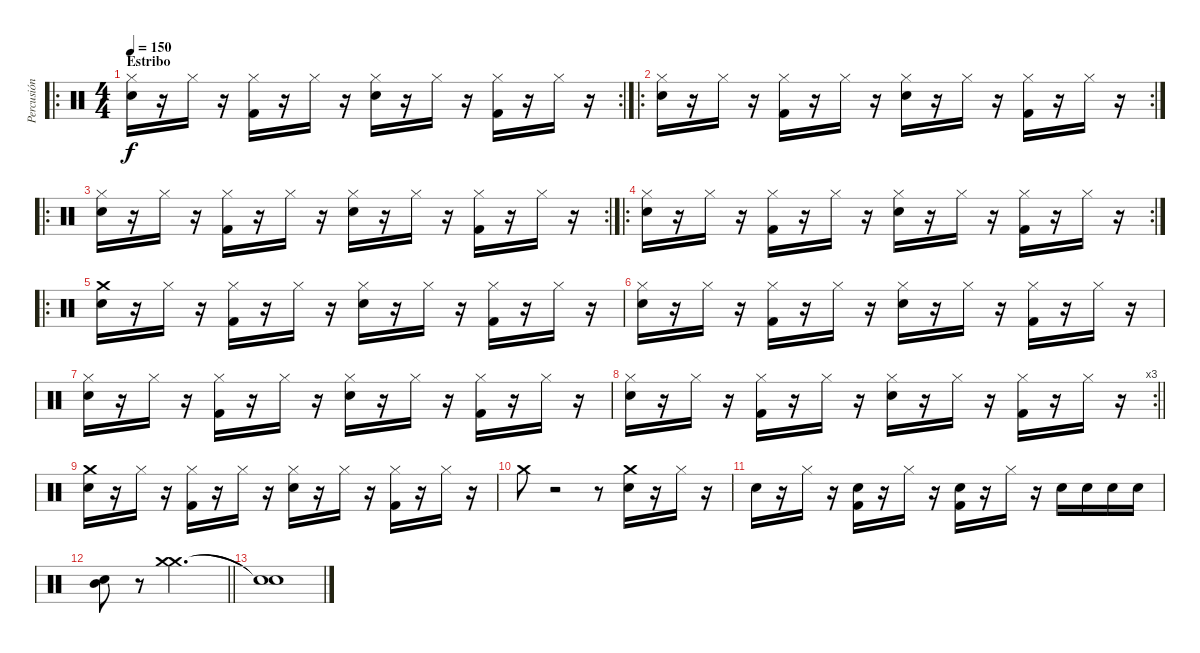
\track ("Percusión" "Percusión") {instrument percussion}
\staff {score}
\articulation defaults
\ro
\rc 2
\ts (4 4)
\section ("" "Estribo")
\tempo 150
\clef neutral
\ks c
("Hi-Hat (closed)" "Snare (hit) 2").16{dy f} r.16 "Hi-Hat (closed)".16 r.16 ("Hi-Hat (closed)" "Kick (hit) 2").16 r.16 "Hi-Hat (closed)".16 r.16 ("Hi-Hat (closed)" "Snare (hit) 2").16 r.16 "Hi-Hat (closed)".16 r.16 ("Hi-Hat (closed)" "Kick (hit) 2").16 r.16 "Hi-Hat (closed)".16 r.16 |
\ro
\rc 2
("Hi-Hat (closed)" "Snare (hit) 2").16 r.16 "Hi-Hat (closed)".16 r.16 ("Hi-Hat (closed)" "Kick (hit) 2").16 r.16 "Hi-Hat (closed)".16 r.16 ("Hi-Hat (closed)" "Snare (hit) 2").16 r.16 "Hi-Hat (closed)".16 r.16 ("Hi-Hat (closed)" "Kick (hit) 2").16 r.16 "Hi-Hat (closed)".16 r.16 |
\ro
\rc 2
("Hi-Hat (closed)" "Snare (hit) 2").16 r.16 "Hi-Hat (closed)".16 r.16 ("Hi-Hat (closed)" "Kick (hit) 2").16 r.16 "Hi-Hat (closed)".16 r.16 ("Hi-Hat (closed)" "Snare (hit) 2").16 r.16 "Hi-Hat (closed)".16 r.16 ("Hi-Hat (closed)" "Kick (hit) 2").16 r.16 "Hi-Hat (closed)".16 r.16 |
\ro
\rc 2
("Hi-Hat (closed)" "Snare (hit) 2").16 r.16 "Hi-Hat (closed)".16 r.16 ("Hi-Hat (closed)" "Kick (hit) 2").16 r.16 "Hi-Hat (closed)".16 r.16 ("Hi-Hat (closed)" "Snare (hit) 2").16 r.16 "Hi-Hat (closed)".16 r.16 ("Hi-Hat (closed)" "Kick (hit) 2").16 r.16 "Hi-Hat (closed)".16 r.16 |
\ro
("Crash medium (hit)" "Snare (hit) 2").16 r.16 "Hi-Hat (closed)".16 r.16 ("Hi-Hat (closed)" "Kick (hit) 2").16 r.16 "Hi-Hat (closed)".16 r.16 ("Hi-Hat (closed)" "Snare (hit) 2").16 r.16 "Hi-Hat (closed)".16 r.16 ("Hi-Hat (closed)" "Kick (hit) 2").16 r.16 "Hi-Hat (closed)".16 r.16 |
("Hi-Hat (closed)" "Snare (hit) 2").16 r.16 "Hi-Hat (closed)".16 r.16 ("Hi-Hat (closed)" "Kick (hit) 2").16 r.16 "Hi-Hat (closed)".16 r.16 ("Hi-Hat (closed)" "Snare (hit) 2").16 r.16 "Hi-Hat (closed)".16 r.16 ("Hi-Hat (closed)" "Kick (hit) 2").16 r.16 "Hi-Hat (closed)".16 r.16 |
("Hi-Hat (closed)" "Snare (hit) 2").16 r.16 "Hi-Hat (closed)".16 r.16 ("Hi-Hat (closed)" "Kick (hit) 2").16 r.16 "Hi-Hat (closed)".16 r.16 ("Hi-Hat (closed)" "Snare (hit) 2").16 r.16 "Hi-Hat (closed)".16 r.16 ("Hi-Hat (closed)" "Kick (hit) 2").16 r.16 "Hi-Hat (closed)".16 r.16 |
\rc 3
\barLineRight lightlight
("Hi-Hat (closed)" "Snare (hit) 2").16 r.16 "Hi-Hat (closed)".16 r.16 ("Hi-Hat (closed)" "Kick (hit) 2").16 r.16 "Hi-Hat (closed)".16 r.16 ("Hi-Hat (closed)" "Snare (hit) 2").16 r.16 "Hi-Hat (closed)".16 r.16 ("Hi-Hat (closed)" "Kick (hit) 2").16 r.16 "Hi-Hat (closed)".16 r.16 |
("Crash medium (hit)" "Snare (hit) 2").16 r.16 "Hi-Hat (closed)".16 r.16 ("Hi-Hat (closed)" "Kick (hit) 2").16 r.16 "Hi-Hat (closed)".16 r.16 ("Hi-Hat (closed)" "Snare (hit) 2").16 r.16 "Hi-Hat (closed)".16 r.16 ("Hi-Hat (closed)" "Kick (hit) 2").16 r.16 "Hi-Hat (closed)".16 r.16 |
"Crash medium (hit)".8 r.2 r.8 ("Crash medium (hit)" "Snare (hit) 2").16 r.16 "Hi-Hat (closed)".16 r.16 |
"Snare (hit) 2".16 r.16 "Hi-Hat (closed)".16 r.16 ("Snare (hit) 2" "Kick (hit) 2").16 r.16 "Hi-Hat (closed)".16 r.16 ("Snare (hit) 2" "Kick (hit) 2").16 r.16 "Hi-Hat (closed)".16 r.16 "Snare (hit) 2".16 "Snare (hit) 2".16 "Snare (hit) 2".16 "Snare (hit) 2".16 |
\barLineRight lightlight
("Mid Tom (hit)" "Snare (hit) 2").8 r.8 ("Crash medium (hit)" "Crash medium (hit)").2{d} |
("Snare (hit)"{t} "Snare (hit)"{t}).1
